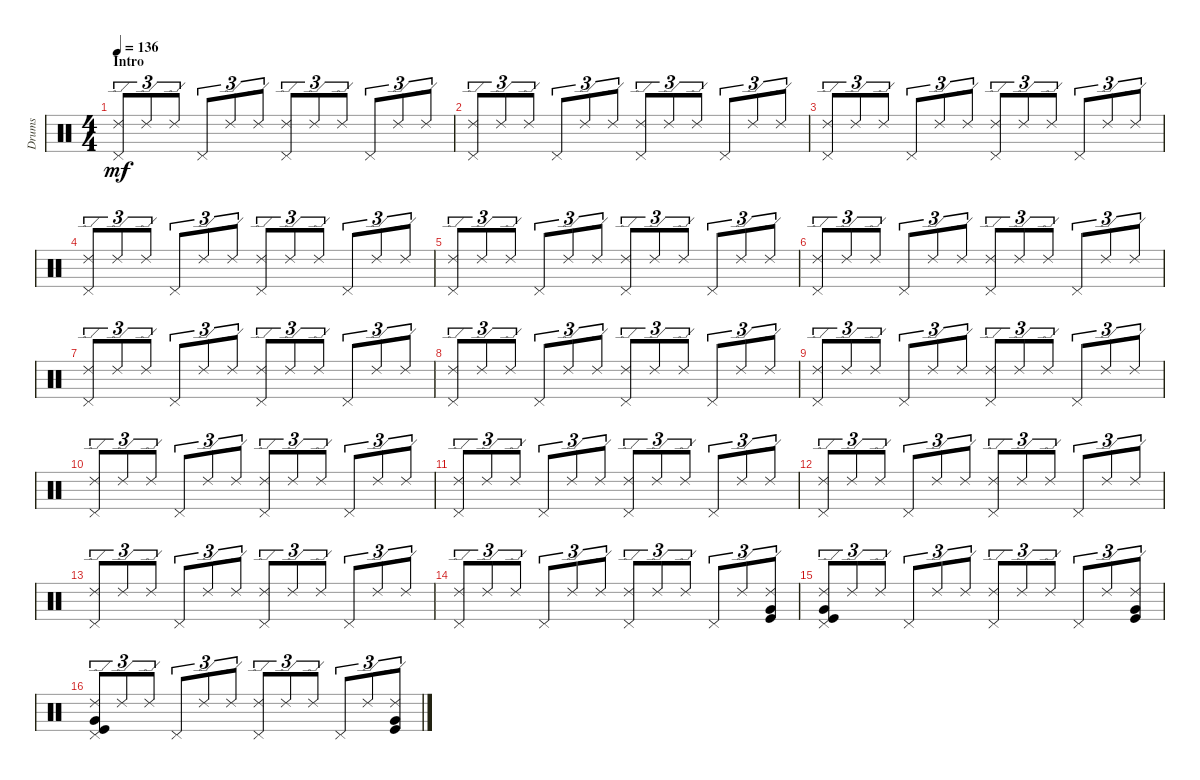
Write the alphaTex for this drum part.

\track ("Drums" "Drums") {instrument percussion}
\staff {score}
\articulation defaults
\ts (4 4)
\section ("" "Intro")
\tempo 136
\clef neutral
\ks c
("Pedal Hi-Hat (hit)" "Ride (edge) 2").8{tu (3 2) dy mf} "Ride (edge) 2".8{tu (3 2)} "Ride (edge) 2".8{tu (3 2)} "Pedal Hi-Hat (hit)".8{tu (3 2)} "Ride (edge) 2".8{tu (3 2)} "Ride (edge) 2".8{tu (3 2)} ("Pedal Hi-Hat (hit)" "Ride (edge) 2").8{tu (3 2)} "Ride (edge) 2".8{tu (3 2)} "Ride (edge) 2".8{tu (3 2)} "Pedal Hi-Hat (hit)".8{tu (3 2)} "Ride (edge) 2".8{tu (3 2)} "Ride (edge) 2".8{tu (3 2)} |
("Pedal Hi-Hat (hit)" "Ride (edge) 2").8{tu (3 2)} "Ride (edge) 2".8{tu (3 2)} "Ride (edge) 2".8{tu (3 2)} "Pedal Hi-Hat (hit)".8{tu (3 2)} "Ride (edge) 2".8{tu (3 2)} "Ride (edge) 2".8{tu (3 2)} ("Pedal Hi-Hat (hit)" "Ride (edge) 2").8{tu (3 2)} "Ride (edge) 2".8{tu (3 2)} "Ride (edge) 2".8{tu (3 2)} "Pedal Hi-Hat (hit)".8{tu (3 2)} "Ride (edge) 2".8{tu (3 2)} "Ride (edge) 2".8{tu (3 2)} |
("Pedal Hi-Hat (hit)" "Ride (edge) 2").8{tu (3 2)} "Ride (edge) 2".8{tu (3 2)} "Ride (edge) 2".8{tu (3 2)} "Pedal Hi-Hat (hit)".8{tu (3 2)} "Ride (edge) 2".8{tu (3 2)} "Ride (edge) 2".8{tu (3 2)} ("Pedal Hi-Hat (hit)" "Ride (edge) 2").8{tu (3 2)} "Ride (edge) 2".8{tu (3 2)} "Ride (edge) 2".8{tu (3 2)} "Pedal Hi-Hat (hit)".8{tu (3 2)} "Ride (edge) 2".8{tu (3 2)} "Ride (edge) 2".8{tu (3 2)} |
("Pedal Hi-Hat (hit)" "Ride (edge) 2").8{tu (3 2)} "Ride (edge) 2".8{tu (3 2)} "Ride (edge) 2".8{tu (3 2)} "Pedal Hi-Hat (hit)".8{tu (3 2)} "Ride (edge) 2".8{tu (3 2)} "Ride (edge) 2".8{tu (3 2)} ("Pedal Hi-Hat (hit)" "Ride (edge) 2").8{tu (3 2)} "Ride (edge) 2".8{tu (3 2)} "Ride (edge) 2".8{tu (3 2)} "Pedal Hi-Hat (hit)".8{tu (3 2)} "Ride (edge) 2".8{tu (3 2)} "Ride (edge) 2".8{tu (3 2)} |
("Pedal Hi-Hat (hit)" "Ride (edge) 2").8{tu (3 2)} "Ride (edge) 2".8{tu (3 2)} "Ride (edge) 2".8{tu (3 2)} "Pedal Hi-Hat (hit)".8{tu (3 2)} "Ride (edge) 2".8{tu (3 2)} "Ride (edge) 2".8{tu (3 2)} ("Pedal Hi-Hat (hit)" "Ride (edge) 2").8{tu (3 2)} "Ride (edge) 2".8{tu (3 2)} "Ride (edge) 2".8{tu (3 2)} "Pedal Hi-Hat (hit)".8{tu (3 2)} "Ride (edge) 2".8{tu (3 2)} "Ride (edge) 2".8{tu (3 2)} |
("Pedal Hi-Hat (hit)" "Ride (edge) 2").8{tu (3 2)} "Ride (edge) 2".8{tu (3 2)} "Ride (edge) 2".8{tu (3 2)} "Pedal Hi-Hat (hit)".8{tu (3 2)} "Ride (edge) 2".8{tu (3 2)} "Ride (edge) 2".8{tu (3 2)} ("Pedal Hi-Hat (hit)" "Ride (edge) 2").8{tu (3 2)} "Ride (edge) 2".8{tu (3 2)} "Ride (edge) 2".8{tu (3 2)} "Pedal Hi-Hat (hit)".8{tu (3 2)} "Ride (edge) 2".8{tu (3 2)} "Ride (edge) 2".8{tu (3 2)} |
("Pedal Hi-Hat (hit)" "Ride (edge) 2").8{tu (3 2)} "Ride (edge) 2".8{tu (3 2)} "Ride (edge) 2".8{tu (3 2)} "Pedal Hi-Hat (hit)".8{tu (3 2)} "Ride (edge) 2".8{tu (3 2)} "Ride (edge) 2".8{tu (3 2)} ("Pedal Hi-Hat (hit)" "Ride (edge) 2").8{tu (3 2)} "Ride (edge) 2".8{tu (3 2)} "Ride (edge) 2".8{tu (3 2)} "Pedal Hi-Hat (hit)".8{tu (3 2)} "Ride (edge) 2".8{tu (3 2)} "Ride (edge) 2".8{tu (3 2)} |
("Pedal Hi-Hat (hit)" "Ride (edge) 2").8{tu (3 2)} "Ride (edge) 2".8{tu (3 2)} "Ride (edge) 2".8{tu (3 2)} "Pedal Hi-Hat (hit)".8{tu (3 2)} "Ride (edge) 2".8{tu (3 2)} "Ride (edge) 2".8{tu (3 2)} ("Pedal Hi-Hat (hit)" "Ride (edge) 2").8{tu (3 2)} "Ride (edge) 2".8{tu (3 2)} "Ride (edge) 2".8{tu (3 2)} "Pedal Hi-Hat (hit)".8{tu (3 2)} "Ride (edge) 2".8{tu (3 2)} "Ride (edge) 2".8{tu (3 2)} |
("Pedal Hi-Hat (hit)" "Ride (edge) 2").8{tu (3 2)} "Ride (edge) 2".8{tu (3 2)} "Ride (edge) 2".8{tu (3 2)} "Pedal Hi-Hat (hit)".8{tu (3 2)} "Ride (edge) 2".8{tu (3 2)} "Ride (edge) 2".8{tu (3 2)} ("Pedal Hi-Hat (hit)" "Ride (edge) 2").8{tu (3 2)} "Ride (edge) 2".8{tu (3 2)} "Ride (edge) 2".8{tu (3 2)} "Pedal Hi-Hat (hit)".8{tu (3 2)} "Ride (edge) 2".8{tu (3 2)} "Ride (edge) 2".8{tu (3 2)} |
("Pedal Hi-Hat (hit)" "Ride (edge) 2").8{tu (3 2)} "Ride (edge) 2".8{tu (3 2)} "Ride (edge) 2".8{tu (3 2)} "Pedal Hi-Hat (hit)".8{tu (3 2)} "Ride (edge) 2".8{tu (3 2)} "Ride (edge) 2".8{tu (3 2)} ("Pedal Hi-Hat (hit)" "Ride (edge) 2").8{tu (3 2)} "Ride (edge) 2".8{tu (3 2)} "Ride (edge) 2".8{tu (3 2)} "Pedal Hi-Hat (hit)".8{tu (3 2)} "Ride (edge) 2".8{tu (3 2)} "Ride (edge) 2".8{tu (3 2)} |
("Pedal Hi-Hat (hit)" "Ride (edge) 2").8{tu (3 2)} "Ride (edge) 2".8{tu (3 2)} "Ride (edge) 2".8{tu (3 2)} "Pedal Hi-Hat (hit)".8{tu (3 2)} "Ride (edge) 2".8{tu (3 2)} "Ride (edge) 2".8{tu (3 2)} ("Pedal Hi-Hat (hit)" "Ride (edge) 2").8{tu (3 2)} "Ride (edge) 2".8{tu (3 2)} "Ride (edge) 2".8{tu (3 2)} "Pedal Hi-Hat (hit)".8{tu (3 2)} "Ride (edge) 2".8{tu (3 2)} "Ride (edge) 2".8{tu (3 2)} |
("Pedal Hi-Hat (hit)" "Ride (edge) 2").8{tu (3 2)} "Ride (edge) 2".8{tu (3 2)} "Ride (edge) 2".8{tu (3 2)} "Pedal Hi-Hat (hit)".8{tu (3 2)} "Ride (edge) 2".8{tu (3 2)} "Ride (edge) 2".8{tu (3 2)} ("Pedal Hi-Hat (hit)" "Ride (edge) 2").8{tu (3 2)} "Ride (edge) 2".8{tu (3 2)} "Ride (edge) 2".8{tu (3 2)} "Pedal Hi-Hat (hit)".8{tu (3 2)} "Ride (edge) 2".8{tu (3 2)} "Ride (edge) 2".8{tu (3 2)} |
("Pedal Hi-Hat (hit)" "Ride (edge) 2").8{tu (3 2)} "Ride (edge) 2".8{tu (3 2)} "Ride (edge) 2".8{tu (3 2)} "Pedal Hi-Hat (hit)".8{tu (3 2)} "Ride (edge) 2".8{tu (3 2)} "Ride (edge) 2".8{tu (3 2)} ("Pedal Hi-Hat (hit)" "Ride (edge) 2").8{tu (3 2)} "Ride (edge) 2".8{tu (3 2)} "Ride (edge) 2".8{tu (3 2)} "Pedal Hi-Hat (hit)".8{tu (3 2)} "Ride (edge) 2".8{tu (3 2)} "Ride (edge) 2".8{tu (3 2)} |
("Pedal Hi-Hat (hit)" "Ride (edge) 2").8{tu (3 2)} "Ride (edge) 2".8{tu (3 2)} "Ride (edge) 2".8{tu (3 2)} "Pedal Hi-Hat (hit)".8{tu (3 2)} "Ride (edge) 2".8{tu (3 2)} "Ride (edge) 2".8{tu (3 2)} ("Pedal Hi-Hat (hit)" "Ride (edge) 2").8{tu (3 2)} "Ride (edge) 2".8{tu (3 2)} "Ride (edge) 2".8{tu (3 2)} "Pedal Hi-Hat (hit)".8{tu (3 2)} "Ride (edge) 2".8{tu (3 2)} ("Ride (edge) 2" "Kick (hit)" "Very Low Tom (hit)").8{tu (3 2)} |
("Pedal Hi-Hat (hit)" "Ride (edge) 2" "Kick (hit)" "Very Low Tom (hit)").8{tu (3 2)} "Ride (edge) 2".8{tu (3 2)} "Ride (edge) 2".8{tu (3 2)} "Pedal Hi-Hat (hit)".8{tu (3 2)} "Ride (edge) 2".8{tu (3 2)} "Ride (edge) 2".8{tu (3 2)} ("Pedal Hi-Hat (hit)" "Ride (edge) 2").8{tu (3 2)} "Ride (edge) 2".8{tu (3 2)} "Ride (edge) 2".8{tu (3 2)} "Pedal Hi-Hat (hit)".8{tu (3 2)} "Ride (edge) 2".8{tu (3 2)} ("Ride (edge) 2" "Kick (hit)" "Very Low Tom (hit)").8{tu (3 2)} |
("Pedal Hi-Hat (hit)" "Ride (edge) 2" "Kick (hit)" "Very Low Tom (hit)").8{tu (3 2)} "Ride (edge) 2".8{tu (3 2)} "Ride (edge) 2".8{tu (3 2)} "Pedal Hi-Hat (hit)".8{tu (3 2)} "Ride (edge) 2".8{tu (3 2)} "Ride (edge) 2".8{tu (3 2)} ("Pedal Hi-Hat (hit)" "Ride (edge) 2").8{tu (3 2)} "Ride (edge) 2".8{tu (3 2)} "Ride (edge) 2".8{tu (3 2)} "Pedal Hi-Hat (hit)".8{tu (3 2)} "Ride (edge) 2".8{tu (3 2)} ("Ride (edge) 2" "Kick (hit)" "Very Low Tom (hit)").8{tu (3 2)}
